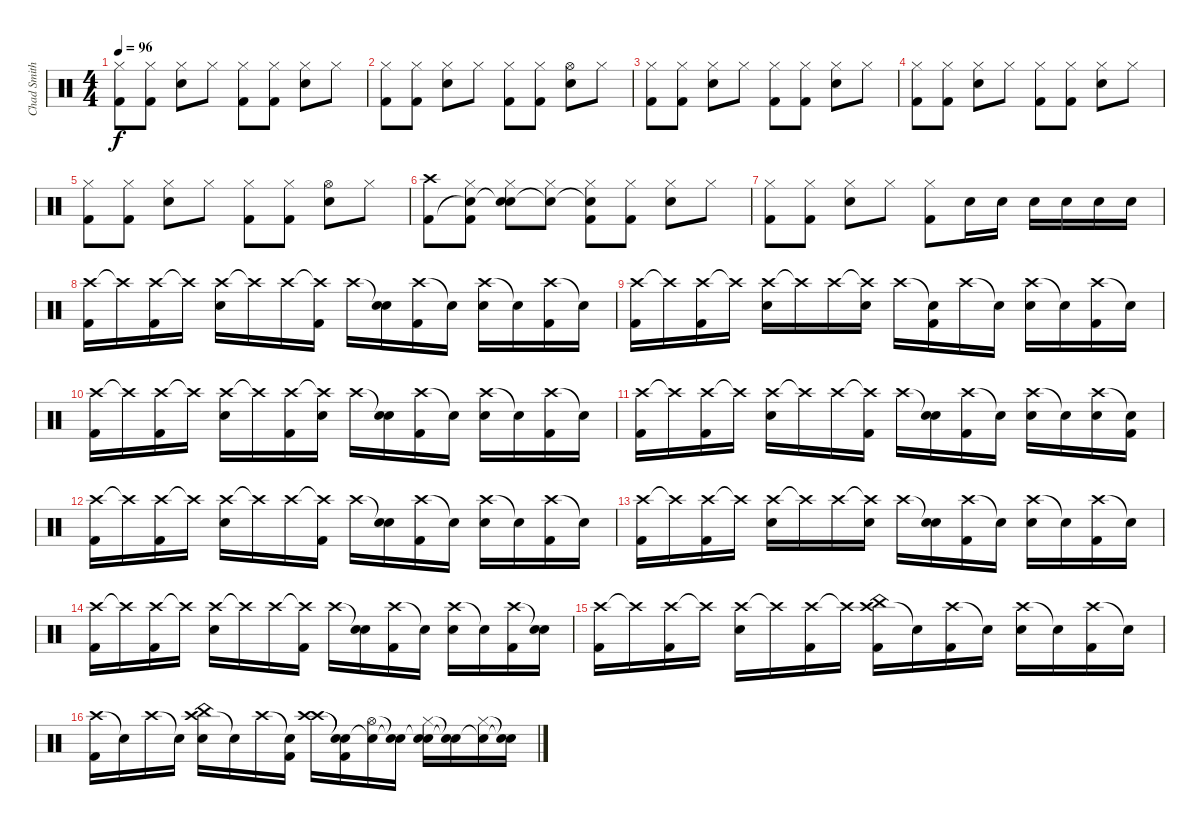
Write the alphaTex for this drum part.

\track ("Chad Smith" "Chad Smith") {mute instrument percussion}
\staff {score}
\articulation defaults
\ts (4 4)
\tempo 96
\clef neutral
\ks c
("Hi-Hat (closed)" "Kick (hit) 2").8{dy f} ("Hi-Hat (closed)" "Kick (hit) 2").8 ("Hi-Hat (closed)" "Snare (hit) 2").8 "Hi-Hat (closed)".8 ("Hi-Hat (closed)" "Kick (hit) 2").8 ("Hi-Hat (closed)" "Kick (hit) 2").8 ("Hi-Hat (closed)" "Snare (hit) 2").8 "Hi-Hat (closed)".8 |
("Hi-Hat (closed)" "Kick (hit) 2").8 ("Hi-Hat (closed)" "Kick (hit) 2").8 ("Hi-Hat (closed)" "Snare (hit) 2").8 "Hi-Hat (closed)".8 ("Hi-Hat (closed)" "Kick (hit) 2").8 ("Hi-Hat (closed)" "Kick (hit) 2").8 ("Hi-Hat (open)" "Snare (hit) 2").8 "Hi-Hat (closed)".8 |
("Hi-Hat (closed)" "Kick (hit) 2").8 ("Hi-Hat (closed)" "Kick (hit) 2").8 ("Hi-Hat (closed)" "Snare (hit) 2").8 "Hi-Hat (closed)".8 ("Hi-Hat (closed)" "Kick (hit) 2").8 ("Hi-Hat (closed)" "Kick (hit) 2").8 ("Hi-Hat (closed)" "Snare (hit) 2").8 "Hi-Hat (closed)".8 |
("Hi-Hat (closed)" "Kick (hit) 2").8 ("Hi-Hat (closed)" "Kick (hit) 2").8 ("Hi-Hat (closed)" "Snare (hit) 2").8 "Hi-Hat (closed)".8 ("Hi-Hat (closed)" "Kick (hit) 2").8 ("Hi-Hat (closed)" "Kick (hit) 2").8 ("Hi-Hat (closed)" "Snare (hit) 2").8 "Hi-Hat (closed)".8 |
("Hi-Hat (closed)" "Kick (hit) 2").8 ("Hi-Hat (closed)" "Kick (hit) 2").8 ("Hi-Hat (closed)" "Snare (hit) 2").8 "Hi-Hat (closed)".8 ("Hi-Hat (closed)" "Kick (hit) 2").8 ("Hi-Hat (closed)" "Kick (hit) 2").8 ("Hi-Hat (open)" "Snare (hit) 2").8 "Hi-Hat (closed)".8 |
("Crash high (hit)" "Kick (hit) 2").8 ("Hi-Hat (closed)" "Snare (hit)"{t} "Kick (hit) 2").8 ("Hi-Hat (closed)" "Snare (hit)"{t} "Snare (hit) 2").8 ("Hi-Hat (closed)" "Snare (hit)"{t}).8 ("Hi-Hat (closed)" "Snare (hit)"{t} "Kick (hit) 2").8 ("Hi-Hat (closed)" "Kick (hit) 2").8 ("Hi-Hat (closed)" "Snare (hit) 2").8 "Hi-Hat (closed)".8 |
("Hi-Hat (closed)" "Kick (hit) 2").8 ("Hi-Hat (closed)" "Kick (hit) 2").8 ("Hi-Hat (closed)" "Snare (hit) 2").8 "Hi-Hat (closed)".8 ("Hi-Hat (closed)" "Kick (hit) 2").8 "Snare (hit) 2".16 "Snare (hit) 2".16 "Snare (hit) 2".16 "Snare (hit) 2".16 "Snare (hit) 2".16 "Snare (hit) 2".16 |
("Crash high (hit)" "Kick (hit) 2").16 "Crash high (hit)"{t}.16 ("Crash high (hit)" "Kick (hit) 2").16 "Crash high (hit)"{t}.16 ("Crash high (hit)" "Snare (hit) 2").16 "Crash high (hit)"{t}.16 "Crash high (hit)".16 ("Crash high (hit)"{t} "Kick (hit) 2").16 "Crash high (hit)".16 ("Snare (hit)"{t} "Snare (hit) 2").16 ("Crash high (hit)" "Kick (hit) 2").16 "Snare (hit)"{t}.16 ("Crash high (hit)" "Snare (hit) 2").16 "Snare (hit)"{t}.16 ("Crash high (hit)" "Kick (hit) 2").16 "Snare (hit)"{t}.16 |
("Crash high (hit)" "Kick (hit) 2").16 "Crash high (hit)"{t}.16 ("Crash high (hit)" "Kick (hit) 2").16 "Crash high (hit)"{t}.16 ("Crash high (hit)" "Snare (hit) 2").16 "Crash high (hit)"{t}.16 "Crash high (hit)".16 ("Crash high (hit)"{t} "Snare (hit) 2").16 "Crash high (hit)".16 ("Snare (hit)"{t} "Kick (hit) 2").16 "Crash high (hit)".16 "Snare (hit)"{t}.16 ("Crash high (hit)" "Snare (hit) 2").16 "Snare (hit)"{t}.16 ("Crash high (hit)" "Kick (hit) 2").16 "Snare (hit)"{t}.16 |
("Crash high (hit)" "Kick (hit) 2").16 "Crash high (hit)"{t}.16 ("Crash high (hit)" "Kick (hit) 2").16 "Crash high (hit)"{t}.16 ("Crash high (hit)" "Snare (hit) 2").16 "Crash high (hit)"{t}.16 ("Crash high (hit)" "Kick (hit) 2").16 ("Crash high (hit)"{t} "Snare (hit) 2").16 "Crash high (hit)".16 ("Snare (hit)"{t} "Snare (hit) 2").16 ("Crash high (hit)" "Kick (hit) 2").16 "Snare (hit)"{t}.16 ("Crash high (hit)" "Snare (hit) 2").16 "Snare (hit)"{t}.16 ("Crash high (hit)" "Kick (hit) 2").16 "Snare (hit)"{t}.16 |
("Crash high (hit)" "Kick (hit) 2").16 "Crash high (hit)"{t}.16 ("Crash high (hit)" "Kick (hit) 2").16 "Crash high (hit)"{t}.16 ("Crash high (hit)" "Snare (hit) 2").16 "Crash high (hit)"{t}.16 "Crash high (hit)".16 ("Crash high (hit)"{t} "Kick (hit) 2").16 "Crash high (hit)".16 ("Snare (hit)"{t} "Snare (hit) 2").16 ("Crash high (hit)" "Kick (hit) 2").16 "Snare (hit)"{t}.16 ("Crash high (hit)" "Snare (hit) 2").16 "Snare (hit)"{t}.16 ("Crash high (hit)" "Snare (hit) 2").16 ("Snare (hit)"{t} "Kick (hit) 2").16 |
("Crash high (hit)" "Kick (hit) 2").16 "Crash high (hit)"{t}.16 ("Crash high (hit)" "Kick (hit) 2").16 "Crash high (hit)"{t}.16 ("Crash high (hit)" "Snare (hit) 2").16 "Crash high (hit)"{t}.16 "Crash high (hit)".16 ("Crash high (hit)"{t} "Kick (hit) 2").16 "Crash high (hit)".16 ("Snare (hit)"{t} "Snare (hit) 2").16 ("Crash high (hit)" "Kick (hit) 2").16 "Snare (hit)"{t}.16 ("Crash high (hit)" "Snare (hit) 2").16 "Snare (hit)"{t}.16 ("Crash high (hit)" "Kick (hit) 2").16 "Snare (hit)"{t}.16 |
("Crash high (hit)" "Kick (hit) 2").16 "Crash high (hit)"{t}.16 ("Crash high (hit)" "Kick (hit) 2").16 "Crash high (hit)"{t}.16 ("Crash high (hit)" "Snare (hit) 2").16 "Crash high (hit)"{t}.16 "Crash high (hit)".16 ("Crash high (hit)"{t} "Snare (hit) 2").16 "Crash high (hit)".16 ("Snare (hit)"{t} "Snare (hit) 2").16 ("Crash high (hit)" "Kick (hit) 2").16 "Snare (hit)"{t}.16 ("Crash high (hit)" "Snare (hit) 2").16 "Snare (hit)"{t}.16 ("Crash high (hit)" "Kick (hit) 2").16 "Snare (hit)"{t}.16 |
("Crash high (hit)" "Kick (hit) 2").16 "Crash high (hit)"{t}.16 ("Crash high (hit)" "Kick (hit) 2").16 "Crash high (hit)"{t}.16 ("Crash high (hit)" "Snare (hit) 2").16 "Crash high (hit)"{t}.16 "Crash high (hit)".16 ("Crash high (hit)"{t} "Kick (hit) 2").16 "Crash high (hit)".16 ("Snare (hit)"{t} "Snare (hit) 2").16 ("Crash high (hit)" "Kick (hit) 2").16 "Snare (hit)"{t}.16 ("Crash high (hit)" "Snare (hit) 2").16 "Snare (hit)"{t}.16 ("Crash high (hit)" "Kick (hit) 2").16 ("Snare (hit)"{t} "Snare (hit) 2").16 |
("Crash high (hit)" "Kick (hit) 2").16 "Crash high (hit)"{t}.16 ("Crash high (hit)" "Kick (hit) 2").16 "Crash high (hit)"{t}.16 ("Crash high (hit)" "Snare (hit) 2").16 "Crash high (hit)"{t}.16 ("Crash high (hit)" "Kick (hit) 2").16 "Crash high (hit)"{t}.16 ("Crash high (hit)" "China (hit)" "Kick (hit) 2").16 "Snare (hit)"{t}.16 ("Crash high (hit)" "Kick (hit) 2").16 "Snare (hit)"{t}.16 ("Crash high (hit)" "Snare (hit) 2").16 "Snare (hit)"{t}.16 ("Crash high (hit)" "Kick (hit) 2").16 "Snare (hit)"{t}.16 |
("Crash high (hit)" "Kick (hit) 2").16 "Snare (hit)"{t}.16 "Crash high (hit)".16 "Snare (hit)"{t}.16 ("Crash high (hit)" "China (hit)" "Snare (hit) 2").16 "Snare (hit)"{t}.16 "Crash high (hit)".16 ("Snare (hit)"{t} "Kick (hit) 2").16 ("Crash high (hit)" "Crash high (hit)").16 ("Snare (hit)"{t} "Snare (hit)"{t} "Kick (hit) 2").16 ("Hi-Hat (open)" "Snare (hit)"{t}).16 ("Snare (hit)"{t} "Snare (hit)"{t}).16 ("Hi-Hat (closed)" "Snare (hit)"{t} "Snare (hit) 2").16 ("Snare (hit)"{t} "Snare (hit)"{t}).16 ("Hi-Hat (closed)" "Snare (hit)"{t}).16 ("Snare (hit)"{t} "Snare (hit)"{t}).16
